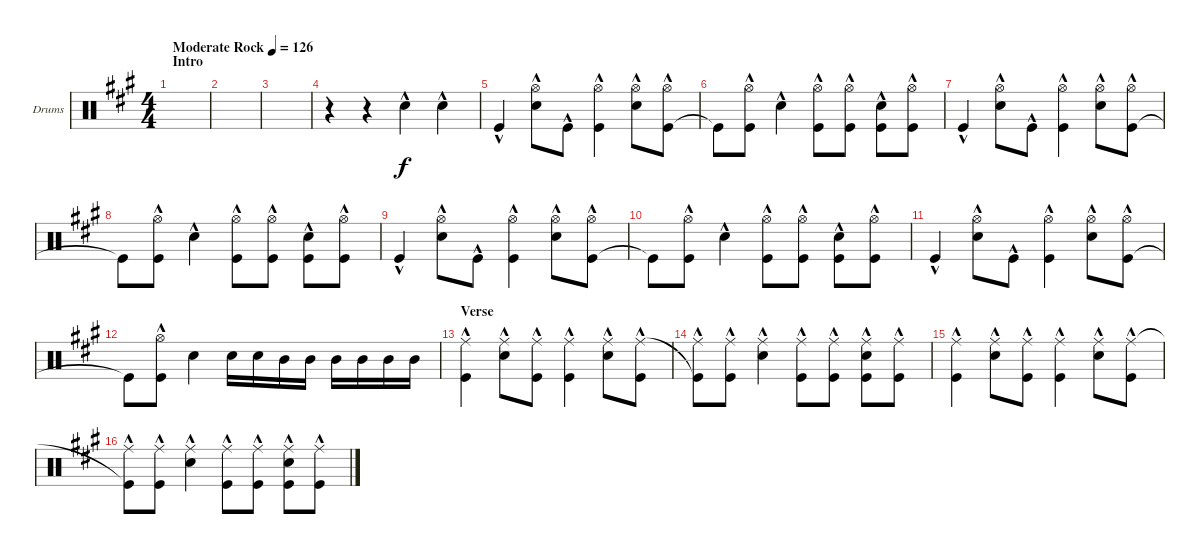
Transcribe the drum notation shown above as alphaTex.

\defaultSystemsLayout 4
\bracketExtendMode groupsimilarinstruments
\firstSystemTrackNameOrientation horizontal
\otherSystemsTrackNameOrientation horizontal
\track ("Drumkit" "Drums") {instrument percussion}
\staff {score}
\articulation defaults
\ts (4 4)
\section ("" "Intro")
\tempo (126 "Moderate Rock")
\clef neutral
\scale
1.08827
\ks a
|
\scale
0.911728 |
\scale
1.05801 |
\scale
0.941992 r.4 r.4 "Snare (hit) 2"{hac}.4 "Snare (hit) 2"{hac}.4 |
\scale
1.05801 "Kick (hit)"{hac}.4{dy f} ("Snare (hit) 2"{hac} "Hi-Hat (open)"{hac}).8 "Kick (hit)"{hac}.8 ("Kick (hit)"{hac} "Hi-Hat (open)"{hac}).4 ("Snare (hit) 2"{hac} "Hi-Hat (open)"{hac}).8 ("Kick (hit)"{hac} "Hi-Hat (open)"{hac}).8 |
\scale
0.941992 "Kick (hit)"{t}.8 ("Kick (hit)"{hac} "Hi-Hat (open)"{hac}).8 "Snare (hit) 2"{hac}.4 ("Hi-Hat (open)"{hac} "Kick (hit)"{hac}).8 ("Kick (hit)"{hac} "Hi-Hat (open)"{hac}).8 ("Kick (hit)"{hac} "Snare (hit) 2"{hac}).8 ("Kick (hit)"{hac} "Hi-Hat (open)"{hac}).8 |
\scale
1.05801 "Kick (hit)"{hac}.4 ("Snare (hit) 2"{hac} "Hi-Hat (open)"{hac}).8 "Kick (hit)"{hac}.8 ("Kick (hit)"{hac} "Hi-Hat (open)"{hac}).4 ("Snare (hit) 2"{hac} "Hi-Hat (open)"{hac}).8 ("Kick (hit)"{hac} "Hi-Hat (open)"{hac}).8 |
\scale
0.941992 "Kick (hit)"{t}.8 ("Kick (hit)"{hac} "Hi-Hat (open)"{hac}).8 "Snare (hit) 2"{hac}.4 ("Hi-Hat (open)"{hac} "Kick (hit)"{hac}).8 ("Kick (hit)"{hac} "Hi-Hat (open)"{hac}).8 ("Kick (hit)"{hac} "Snare (hit) 2"{hac}).8 ("Kick (hit)"{hac} "Hi-Hat (open)"{hac}).8 |
\scale
1.05801 "Kick (hit)"{hac}.4 ("Snare (hit) 2"{hac} "Hi-Hat (open)"{hac}).8 "Kick (hit)"{hac}.8 ("Kick (hit)"{hac} "Hi-Hat (open)"{hac}).4 ("Snare (hit) 2"{hac} "Hi-Hat (open)"{hac}).8 ("Kick (hit)"{hac} "Hi-Hat (open)"{hac}).8 |
\scale
0.941992 "Kick (hit)"{t}.8 ("Kick (hit)"{hac} "Hi-Hat (open)"{hac}).8 "Snare (hit) 2"{hac}.4 ("Hi-Hat (open)"{hac} "Kick (hit)"{hac}).8 ("Kick (hit)"{hac} "Hi-Hat (open)"{hac}).8 ("Kick (hit)"{hac} "Snare (hit) 2"{hac}).8 ("Kick (hit)"{hac} "Hi-Hat (open)"{hac}).8 |
\scale
1.05801 "Kick (hit)"{hac}.4 ("Snare (hit) 2"{hac} "Hi-Hat (open)"{hac}).8 "Kick (hit)"{hac}.8 ("Kick (hit)"{hac} "Hi-Hat (open)"{hac}).4 ("Snare (hit) 2"{hac} "Hi-Hat (open)"{hac}).8 ("Kick (hit)"{hac} "Hi-Hat (open)"{hac}).8 |
\scale
0.941992 "Kick (hit)"{t}.8 ("Kick (hit)"{hac} "Hi-Hat (open)"{hac}).8 "Snare (hit) 2".4 "Snare (hit) 2".16 "Snare (hit) 2".16 "Mid Tom (hit)".16 "Mid Tom (hit)".16 "Mid Tom (hit)".16 "Mid Tom (hit)".16 "Mid Tom (hit)".16 "Mid Tom (hit)".16 |
\section ("" "Verse")
\scale
1.05801 ("Kick (hit)"{hac} "Ride (middle)"{hac}).4 ("Snare (hit) 2"{hac} "Ride (middle)"{hac}).8 ("Kick (hit)"{hac} "Ride (middle)"{hac}).8 ("Kick (hit)"{hac} "Ride (middle)"{hac}).4 ("Snare (hit) 2"{hac} "Ride (middle)"{hac}).8 ("Kick (hit)"{hac} "Ride (middle)"{hac}).8 |
\scale
0.941992 ("Ride (middle)"{hac} "Kick (hit)"{t}).8 ("Kick (hit)"{hac} "Ride (middle)"{hac}).8 ("Snare (hit) 2"{hac} "Ride (middle)"{hac}).4 ("Ride (middle)"{hac} "Kick (hit)"{hac}).8 ("Kick (hit)"{hac} "Ride (middle)"{hac}).8 ("Kick (hit)"{hac} "Snare (hit) 2"{hac} "Ride (middle)"{hac}).8 ("Kick (hit)"{hac} "Ride (middle)"{hac}).8 |
\scale
1.05801 ("Kick (hit)"{hac} "Ride (middle)"{hac}).4 ("Snare (hit) 2"{hac} "Ride (middle)"{hac}).8 ("Kick (hit)"{hac} "Ride (middle)"{hac}).8 ("Kick (hit)"{hac} "Ride (middle)"{hac}).4 ("Snare (hit) 2"{hac} "Ride (middle)"{hac}).8 ("Kick (hit)"{hac} "Ride (middle)"{hac}).8 |
\scale
0.941992 ("Ride (middle)"{hac} "Kick (hit)"{t}).8 ("Kick (hit)"{hac} "Ride (middle)"{hac}).8 ("Snare (hit) 2"{hac} "Ride (middle)"{hac}).4 ("Ride (middle)"{hac} "Kick (hit)"{hac}).8 ("Kick (hit)"{hac} "Ride (middle)"{hac}).8 ("Kick (hit)"{hac} "Snare (hit) 2"{hac} "Ride (middle)"{hac}).8 ("Kick (hit)"{hac} "Ride (middle)"{hac}).8
